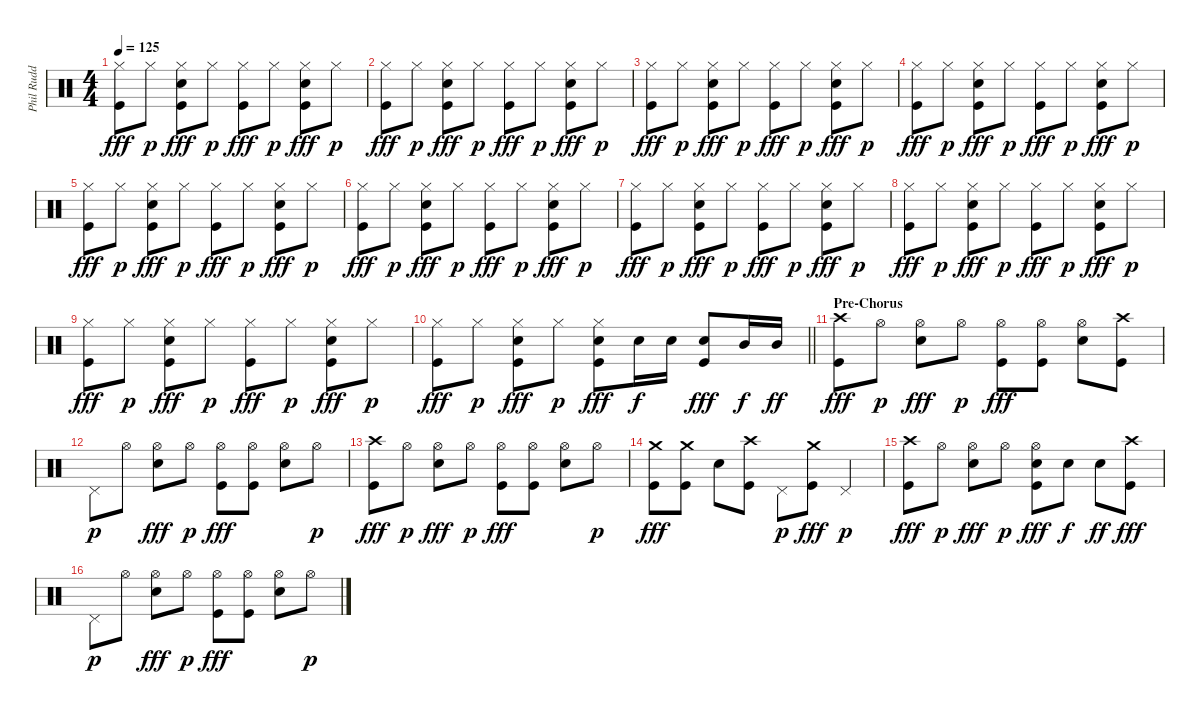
\track ("Phil Rudd" "Phil Rudd") {instrument percussion}
\staff {score}
\articulation defaults
\ts (4 4)
\tempo 125
\clef neutral
\ks c
("Hi-Hat (closed)" "Kick (hit)").8{dy fff} "Hi-Hat (closed)".8{dy p} ("Hi-Hat (closed)" "Snare (hit) 2" "Kick (hit)").8{dy fff} "Hi-Hat (closed)".8{dy p} ("Hi-Hat (closed)" "Kick (hit)").8{dy fff} "Hi-Hat (closed)".8{dy p} ("Hi-Hat (closed)" "Snare (hit) 2" "Kick (hit)").8{dy fff} "Hi-Hat (closed)".8{dy p} |
("Hi-Hat (closed)" "Kick (hit)").8{dy fff} "Hi-Hat (closed)".8{dy p} ("Hi-Hat (closed)" "Snare (hit) 2" "Kick (hit)").8{dy fff} "Hi-Hat (closed)".8{dy p} ("Hi-Hat (closed)" "Kick (hit)").8{dy fff} "Hi-Hat (closed)".8{dy p} ("Hi-Hat (closed)" "Snare (hit) 2" "Kick (hit)").8{dy fff} "Hi-Hat (closed)".8{dy p} |
("Hi-Hat (closed)" "Kick (hit)").8{dy fff} "Hi-Hat (closed)".8{dy p} ("Hi-Hat (closed)" "Snare (hit) 2" "Kick (hit)").8{dy fff} "Hi-Hat (closed)".8{dy p} ("Hi-Hat (closed)" "Kick (hit)").8{dy fff} "Hi-Hat (closed)".8{dy p} ("Hi-Hat (closed)" "Snare (hit) 2" "Kick (hit)").8{dy fff} "Hi-Hat (closed)".8{dy p} |
("Hi-Hat (closed)" "Kick (hit)").8{dy fff} "Hi-Hat (closed)".8{dy p} ("Hi-Hat (closed)" "Snare (hit) 2" "Kick (hit)").8{dy fff} "Hi-Hat (closed)".8{dy p} ("Hi-Hat (closed)" "Kick (hit)").8{dy fff} "Hi-Hat (closed)".8{dy p} ("Hi-Hat (closed)" "Snare (hit) 2" "Kick (hit)").8{dy fff} "Hi-Hat (closed)".8{dy p} |
("Hi-Hat (closed)" "Kick (hit)").8{dy fff} "Hi-Hat (closed)".8{dy p} ("Hi-Hat (closed)" "Snare (hit) 2" "Kick (hit)").8{dy fff} "Hi-Hat (closed)".8{dy p} ("Hi-Hat (closed)" "Kick (hit)").8{dy fff} "Hi-Hat (closed)".8{dy p} ("Hi-Hat (closed)" "Snare (hit) 2" "Kick (hit)").8{dy fff} "Hi-Hat (closed)".8{dy p} |
("Hi-Hat (closed)" "Kick (hit)").8{dy fff} "Hi-Hat (closed)".8{dy p} ("Hi-Hat (closed)" "Snare (hit) 2" "Kick (hit)").8{dy fff} "Hi-Hat (closed)".8{dy p} ("Hi-Hat (closed)" "Kick (hit)").8{dy fff} "Hi-Hat (closed)".8{dy p} ("Hi-Hat (closed)" "Snare (hit) 2" "Kick (hit)").8{dy fff} "Hi-Hat (closed)".8{dy p} |
("Hi-Hat (closed)" "Kick (hit)").8{dy fff} "Hi-Hat (closed)".8{dy p} ("Hi-Hat (closed)" "Snare (hit) 2" "Kick (hit)").8{dy fff} "Hi-Hat (closed)".8{dy p} ("Hi-Hat (closed)" "Kick (hit)").8{dy fff} "Hi-Hat (closed)".8{dy p} ("Hi-Hat (closed)" "Snare (hit) 2" "Kick (hit)").8{dy fff} "Hi-Hat (closed)".8{dy p} |
("Hi-Hat (closed)" "Kick (hit)").8{dy fff} "Hi-Hat (closed)".8{dy p} ("Hi-Hat (closed)" "Snare (hit) 2" "Kick (hit)").8{dy fff} "Hi-Hat (closed)".8{dy p} ("Hi-Hat (closed)" "Kick (hit)").8{dy fff} "Hi-Hat (closed)".8{dy p} ("Hi-Hat (closed)" "Snare (hit) 2" "Kick (hit)").8{dy fff} "Hi-Hat (closed)".8{dy p} |
("Hi-Hat (closed)" "Kick (hit)").8{dy fff} "Hi-Hat (closed)".8{dy p} ("Hi-Hat (closed)" "Snare (hit) 2" "Kick (hit)").8{dy fff} "Hi-Hat (closed)".8{dy p} ("Hi-Hat (closed)" "Kick (hit)").8{dy fff} "Hi-Hat (closed)".8{dy p} ("Hi-Hat (closed)" "Snare (hit) 2" "Kick (hit)").8{dy fff} "Hi-Hat (closed)".8{dy p} |
\barLineRight lightlight
("Hi-Hat (closed)" "Kick (hit)").8{dy fff} "Hi-Hat (closed)".8{dy p} ("Hi-Hat (closed)" "Snare (hit) 2" "Kick (hit)").8{dy fff} "Hi-Hat (closed)".8{dy p} ("Hi-Hat (closed)" "Snare (hit) 2" "Kick (hit)").8{dy fff} "Snare (hit) 2".16{dy f} "Snare (hit) 2".16 ("Snare (hit) 2" "Kick (hit)").8{dy fff} "Mid Tom (hit)".16{dy f} "Mid Tom (hit)".16{dy ff} |
\section ("" "Pre-Chorus")
("Crash high (hit)" "Kick (hit)").8{dy fff} "Hi-Hat (open)".8{dy p} ("Hi-Hat (open)" "Snare (hit) 2").8{dy fff} "Hi-Hat (open)".8{dy p} ("Hi-Hat (open)" "Kick (hit)").8{dy fff} ("Hi-Hat (open)" "Kick (hit)").8 ("Hi-Hat (open)" "Snare (hit) 2").8 ("Crash high (hit)" "Kick (hit)").8 |
"Pedal Hi-Hat (hit)".8{dy p} "Hi-Hat (open)".8 ("Hi-Hat (open)" "Snare (hit) 2").8{dy fff} "Hi-Hat (open)".8{dy p} ("Hi-Hat (open)" "Kick (hit)").8{dy fff} ("Hi-Hat (open)" "Kick (hit)").8 ("Hi-Hat (open)" "Snare (hit) 2").8 "Hi-Hat (open)".8{dy p} |
("Crash high (hit)" "Kick (hit)").8{dy fff} "Hi-Hat (open)".8{dy p} ("Hi-Hat (open)" "Snare (hit) 2").8{dy fff} "Hi-Hat (open)".8{dy p} ("Hi-Hat (open)" "Kick (hit)").8{dy fff} ("Hi-Hat (open)" "Kick (hit)").8 ("Hi-Hat (open)" "Snare (hit) 2").8 "Hi-Hat (open)".8{dy p} |
("Crash medium (hit)" "Kick (hit)").8{dy fff} ("Crash medium (hit)" "Kick (hit)").8 "Snare (hit) 2".8 ("Crash high (hit)" "Kick (hit)").8 "Pedal Hi-Hat (hit)".8{dy p} ("Crash medium (hit)" "Kick (hit)").8{dy fff} "Pedal Hi-Hat (hit)".4{dy p} |
("Crash high (hit)" "Kick (hit)").8{dy fff} "Hi-Hat (open)".8{dy p} ("Hi-Hat (open)" "Snare (hit) 2").8{dy fff} "Hi-Hat (open)".8{dy p} ("Hi-Hat (open)" "Snare (hit) 2" "Kick (hit)").8{dy fff} "Snare (hit) 2".8{dy f} "Snare (hit) 2".8{dy ff} ("Crash high (hit)" "Kick (hit)").8{dy fff} |
"Pedal Hi-Hat (hit)".8{dy p} "Hi-Hat (open)".8 ("Hi-Hat (open)" "Snare (hit) 2").8{dy fff} "Hi-Hat (open)".8{dy p} ("Hi-Hat (open)" "Kick (hit)").8{dy fff} ("Hi-Hat (open)" "Kick (hit)").8 ("Hi-Hat (open)" "Snare (hit) 2").8 "Hi-Hat (open)".8{dy p}
